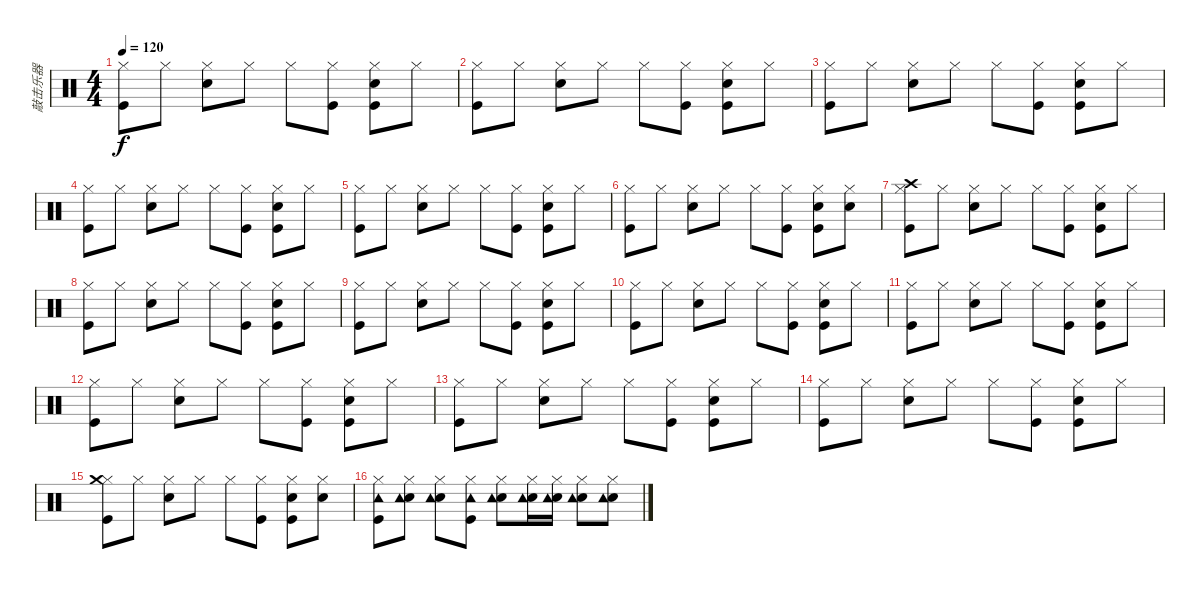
\track ("敲击乐器" "敲击乐器") {instrument percussion}
\staff {score}
\articulation defaults
\ts (4 4)
\tempo 120
\clef neutral
\ks c
("Hi-Hat (closed)" "Kick (hit)").8{dy f} "Hi-Hat (closed)".8 ("Hi-Hat (closed)" "Snare (hit) 2").8 "Hi-Hat (closed)".8 "Hi-Hat (closed)".8 ("Hi-Hat (closed)" "Kick (hit)").8 ("Hi-Hat (closed)" "Snare (hit) 2" "Kick (hit)").8 "Hi-Hat (closed)".8 |
("Hi-Hat (closed)" "Kick (hit)").8 "Hi-Hat (closed)".8 ("Hi-Hat (closed)" "Snare (hit) 2").8 "Hi-Hat (closed)".8 "Hi-Hat (closed)".8 ("Hi-Hat (closed)" "Kick (hit)").8 ("Hi-Hat (closed)" "Snare (hit) 2" "Kick (hit)").8 "Hi-Hat (closed)".8 |
("Hi-Hat (closed)" "Kick (hit)").8 "Hi-Hat (closed)".8 ("Hi-Hat (closed)" "Snare (hit) 2").8 "Hi-Hat (closed)".8 "Hi-Hat (closed)".8 ("Hi-Hat (closed)" "Kick (hit)").8 ("Hi-Hat (closed)" "Snare (hit) 2" "Kick (hit)").8 "Hi-Hat (closed)".8 |
("Hi-Hat (closed)" "Kick (hit)").8 "Hi-Hat (closed)".8 ("Hi-Hat (closed)" "Snare (hit) 2").8 "Hi-Hat (closed)".8 "Hi-Hat (closed)".8 ("Hi-Hat (closed)" "Kick (hit)").8 ("Hi-Hat (closed)" "Snare (hit) 2" "Kick (hit)").8 "Hi-Hat (closed)".8 |
("Hi-Hat (closed)" "Kick (hit)").8 "Hi-Hat (closed)".8 ("Hi-Hat (closed)" "Snare (hit) 2").8 "Hi-Hat (closed)".8 "Hi-Hat (closed)".8 ("Hi-Hat (closed)" "Kick (hit)").8 ("Hi-Hat (closed)" "Snare (hit) 2" "Kick (hit)").8 "Hi-Hat (closed)".8 |
("Hi-Hat (closed)" "Kick (hit)").8 "Hi-Hat (closed)".8 ("Hi-Hat (closed)" "Snare (hit) 2").8 "Hi-Hat (closed)".8 "Hi-Hat (closed)".8 ("Hi-Hat (closed)" "Kick (hit)").8 ("Hi-Hat (closed)" "Snare (hit) 2" "Kick (hit)").8 ("Hi-Hat (closed)" "Snare (hit) 2").8 |
("Hi-Hat (closed)" "Kick (hit)" "Crash high (hit)").8 "Hi-Hat (closed)".8 ("Hi-Hat (closed)" "Snare (hit) 2").8 "Hi-Hat (closed)".8 "Hi-Hat (closed)".8 ("Hi-Hat (closed)" "Kick (hit)").8 ("Hi-Hat (closed)" "Snare (hit) 2" "Kick (hit)").8 "Hi-Hat (closed)".8 |
("Hi-Hat (closed)" "Kick (hit)").8 "Hi-Hat (closed)".8 ("Hi-Hat (closed)" "Snare (hit) 2").8 "Hi-Hat (closed)".8 "Hi-Hat (closed)".8 ("Hi-Hat (closed)" "Kick (hit)").8 ("Hi-Hat (closed)" "Snare (hit) 2" "Kick (hit)").8 "Hi-Hat (closed)".8 |
("Hi-Hat (closed)" "Kick (hit)").8 "Hi-Hat (closed)".8 ("Hi-Hat (closed)" "Snare (hit) 2").8 "Hi-Hat (closed)".8 "Hi-Hat (closed)".8 ("Hi-Hat (closed)" "Kick (hit)").8 ("Hi-Hat (closed)" "Snare (hit) 2" "Kick (hit)").8 "Hi-Hat (closed)".8 |
("Hi-Hat (closed)" "Kick (hit)").8 "Hi-Hat (closed)".8 ("Hi-Hat (closed)" "Snare (hit) 2").8 "Hi-Hat (closed)".8 "Hi-Hat (closed)".8 ("Hi-Hat (closed)" "Kick (hit)").8 ("Hi-Hat (closed)" "Snare (hit) 2" "Kick (hit)").8 "Hi-Hat (closed)".8 |
("Hi-Hat (closed)" "Kick (hit)").8 "Hi-Hat (closed)".8 ("Hi-Hat (closed)" "Snare (hit) 2").8 "Hi-Hat (closed)".8 "Hi-Hat (closed)".8 ("Hi-Hat (closed)" "Kick (hit)").8 ("Hi-Hat (closed)" "Snare (hit) 2" "Kick (hit)").8 "Hi-Hat (closed)".8 |
("Hi-Hat (closed)" "Kick (hit)").8 "Hi-Hat (closed)".8 ("Hi-Hat (closed)" "Snare (hit) 2").8 "Hi-Hat (closed)".8 "Hi-Hat (closed)".8 ("Hi-Hat (closed)" "Kick (hit)").8 ("Hi-Hat (closed)" "Snare (hit) 2" "Kick (hit)").8 "Hi-Hat (closed)".8 |
("Hi-Hat (closed)" "Kick (hit)").8 "Hi-Hat (closed)".8 ("Hi-Hat (closed)" "Snare (hit) 2").8 "Hi-Hat (closed)".8 "Hi-Hat (closed)".8 ("Hi-Hat (closed)" "Kick (hit)").8 ("Hi-Hat (closed)" "Snare (hit) 2" "Kick (hit)").8 "Hi-Hat (closed)".8 |
("Hi-Hat (closed)" "Kick (hit)").8 "Hi-Hat (closed)".8 ("Hi-Hat (closed)" "Snare (hit) 2").8 "Hi-Hat (closed)".8 "Hi-Hat (closed)".8 ("Hi-Hat (closed)" "Kick (hit)").8 ("Hi-Hat (closed)" "Snare (hit) 2" "Kick (hit)").8 "Hi-Hat (closed)".8 |
("Hi-Hat (closed)" "Kick (hit)" "Crash medium (hit)").8 "Hi-Hat (closed)".8 ("Hi-Hat (closed)" "Snare (hit) 2").8 "Hi-Hat (closed)".8 "Hi-Hat (closed)".8 ("Hi-Hat (closed)" "Kick (hit)").8 ("Hi-Hat (closed)" "Snare (hit) 2" "Kick (hit)").8 ("Hi-Hat (closed)" "Snare (hit) 2").8 |
("Hi-Hat (closed)" "Kick (hit)" "Tambourine (hit)").8 ("Hi-Hat (closed)" "Snare (hit) 2" "Tambourine (hit)").8 ("Hi-Hat (closed)" "Snare (hit) 2" "Tambourine (hit)").8 ("Hi-Hat (closed)" "Kick (hit)" "Tambourine (hit)").8 ("Hi-Hat (closed)" "Snare (hit) 2" "Tambourine (hit)").8 ("Hi-Hat (closed)" "Snare (hit) 2" "Tambourine (hit)").16 ("Hi-Hat (closed)" "Snare (hit) 2" "Tambourine (hit)").16 ("Hi-Hat (closed)" "Snare (hit) 2" "Tambourine (hit)").8 ("Hi-Hat (closed)" "Snare (hit) 2" "Tambourine (hit)").8
